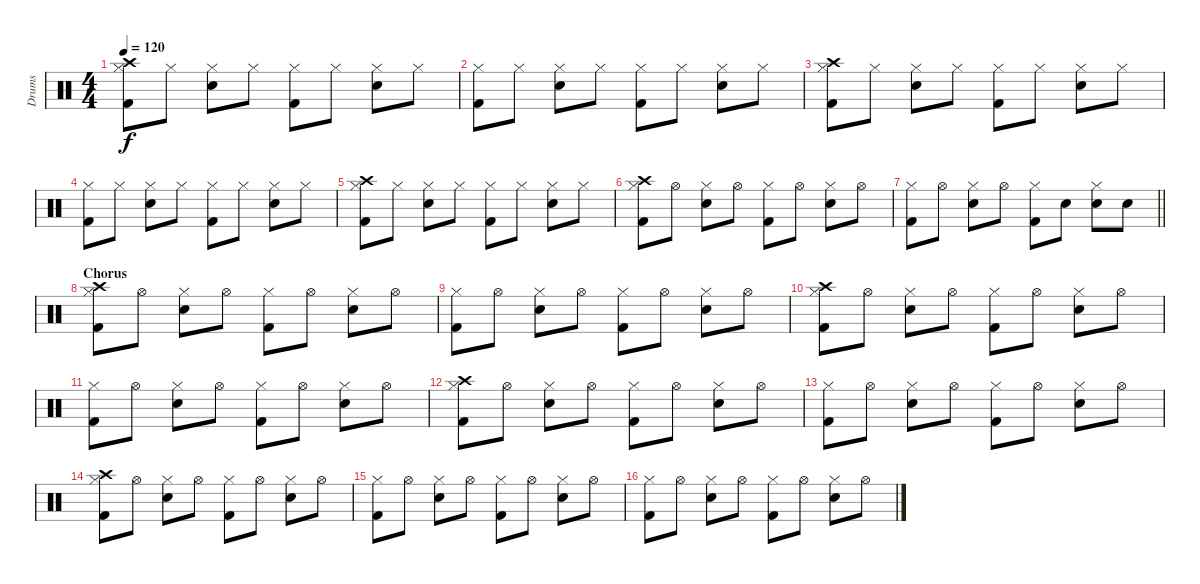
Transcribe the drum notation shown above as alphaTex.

\track ("Drums" "Drums") {instrument percussion}
\staff {score}
\articulation defaults
\ts (4 4)
\tempo 120
\clef neutral
\ks c
("Crash high (hit)" "Hi-Hat (closed)" "Kick (hit) 2").8{dy f} "Hi-Hat (closed)".8 ("Hi-Hat (closed)" "Snare (hit) 2").8 "Hi-Hat (closed)".8 ("Hi-Hat (closed)" "Kick (hit) 2").8 "Hi-Hat (closed)".8 ("Hi-Hat (closed)" "Snare (hit) 2").8 "Hi-Hat (closed)".8 |
("Hi-Hat (closed)" "Kick (hit) 2").8 "Hi-Hat (closed)".8 ("Hi-Hat (closed)" "Snare (hit) 2").8 "Hi-Hat (closed)".8 ("Hi-Hat (closed)" "Kick (hit) 2").8 "Hi-Hat (closed)".8 ("Hi-Hat (closed)" "Snare (hit) 2").8 "Hi-Hat (closed)".8 |
("Crash high (hit)" "Hi-Hat (closed)" "Kick (hit) 2").8 "Hi-Hat (closed)".8 ("Hi-Hat (closed)" "Snare (hit) 2").8 "Hi-Hat (closed)".8 ("Hi-Hat (closed)" "Kick (hit) 2").8 "Hi-Hat (closed)".8 ("Hi-Hat (closed)" "Snare (hit) 2").8 "Hi-Hat (closed)".8 |
("Hi-Hat (closed)" "Kick (hit) 2").8 "Hi-Hat (closed)".8 ("Hi-Hat (closed)" "Snare (hit) 2").8 "Hi-Hat (closed)".8 ("Hi-Hat (closed)" "Kick (hit) 2").8 "Hi-Hat (closed)".8 ("Hi-Hat (closed)" "Snare (hit) 2").8 "Hi-Hat (closed)".8 |
("Crash high (hit)" "Hi-Hat (closed)" "Kick (hit) 2").8 "Hi-Hat (closed)".8 ("Hi-Hat (closed)" "Snare (hit) 2").8 "Hi-Hat (closed)".8 ("Hi-Hat (closed)" "Kick (hit) 2").8 "Hi-Hat (closed)".8 ("Hi-Hat (closed)" "Snare (hit) 2").8 "Hi-Hat (closed)".8 |
("Crash high (hit)" "Hi-Hat (closed)" "Kick (hit) 2").8 "Hi-Hat (open)".8 ("Hi-Hat (closed)" "Snare (hit) 2").8 "Hi-Hat (open)".8 ("Hi-Hat (closed)" "Kick (hit) 2").8 "Hi-Hat (open)".8 ("Hi-Hat (closed)" "Snare (hit) 2").8 "Hi-Hat (open)".8 |
\barLineRight lightlight
("Hi-Hat (closed)" "Kick (hit) 2").8 "Hi-Hat (open)".8 ("Hi-Hat (closed)" "Snare (hit) 2").8 "Hi-Hat (open)".8 ("Hi-Hat (closed)" "Kick (hit) 2").8 "Snare (hit) 2".8 ("Hi-Hat (closed)" "Snare (hit) 2").8 "Snare (hit) 2".8 |
\section ("" "Chorus")
("Crash high (hit)" "Hi-Hat (closed)" "Kick (hit) 2").8 "Hi-Hat (open)".8 ("Hi-Hat (closed)" "Snare (hit) 2").8 "Hi-Hat (open)".8 ("Hi-Hat (closed)" "Kick (hit) 2").8 "Hi-Hat (open)".8 ("Hi-Hat (closed)" "Snare (hit) 2").8 "Hi-Hat (open)".8 |
("Hi-Hat (closed)" "Kick (hit) 2").8 "Hi-Hat (open)".8 ("Hi-Hat (closed)" "Snare (hit) 2").8 "Hi-Hat (open)".8 ("Hi-Hat (closed)" "Kick (hit) 2").8 "Hi-Hat (open)".8 ("Hi-Hat (closed)" "Snare (hit) 2").8 "Hi-Hat (open)".8 |
("Crash high (hit)" "Hi-Hat (closed)" "Kick (hit) 2").8 "Hi-Hat (open)".8 ("Hi-Hat (closed)" "Snare (hit) 2").8 "Hi-Hat (open)".8 ("Hi-Hat (closed)" "Kick (hit) 2").8 "Hi-Hat (open)".8 ("Hi-Hat (closed)" "Snare (hit) 2").8 "Hi-Hat (open)".8 |
("Hi-Hat (closed)" "Kick (hit) 2").8 "Hi-Hat (open)".8 ("Hi-Hat (closed)" "Snare (hit) 2").8 "Hi-Hat (open)".8 ("Hi-Hat (closed)" "Kick (hit) 2").8 "Hi-Hat (open)".8 ("Hi-Hat (closed)" "Snare (hit) 2").8 "Hi-Hat (open)".8 |
("Crash high (hit)" "Hi-Hat (closed)" "Kick (hit) 2").8 "Hi-Hat (open)".8 ("Hi-Hat (closed)" "Snare (hit) 2").8 "Hi-Hat (open)".8 ("Hi-Hat (closed)" "Kick (hit) 2").8 "Hi-Hat (open)".8 ("Hi-Hat (closed)" "Snare (hit) 2").8 "Hi-Hat (open)".8 |
("Hi-Hat (closed)" "Kick (hit) 2").8 "Hi-Hat (open)".8 ("Hi-Hat (closed)" "Snare (hit) 2").8 "Hi-Hat (open)".8 ("Hi-Hat (closed)" "Kick (hit) 2").8 "Hi-Hat (open)".8 ("Hi-Hat (closed)" "Snare (hit) 2").8 "Hi-Hat (open)".8 |
("Crash high (hit)" "Hi-Hat (closed)" "Kick (hit) 2").8 "Hi-Hat (open)".8 ("Hi-Hat (closed)" "Snare (hit) 2").8 "Hi-Hat (open)".8 ("Hi-Hat (closed)" "Kick (hit) 2").8 "Hi-Hat (open)".8 ("Hi-Hat (closed)" "Snare (hit) 2").8 "Hi-Hat (open)".8 |
("Hi-Hat (closed)" "Kick (hit) 2").8 "Hi-Hat (open)".8 ("Hi-Hat (closed)" "Snare (hit) 2").8 "Hi-Hat (open)".8 ("Hi-Hat (closed)" "Kick (hit) 2").8 "Hi-Hat (open)".8 ("Hi-Hat (closed)" "Snare (hit) 2").8 "Hi-Hat (open)".8 |
("Hi-Hat (closed)" "Kick (hit) 2").8 "Hi-Hat (open)".8 ("Hi-Hat (closed)" "Snare (hit) 2").8 "Hi-Hat (open)".8 ("Hi-Hat (closed)" "Kick (hit) 2").8 "Hi-Hat (open)".8 ("Hi-Hat (closed)" "Snare (hit) 2").8 "Hi-Hat (open)".8
